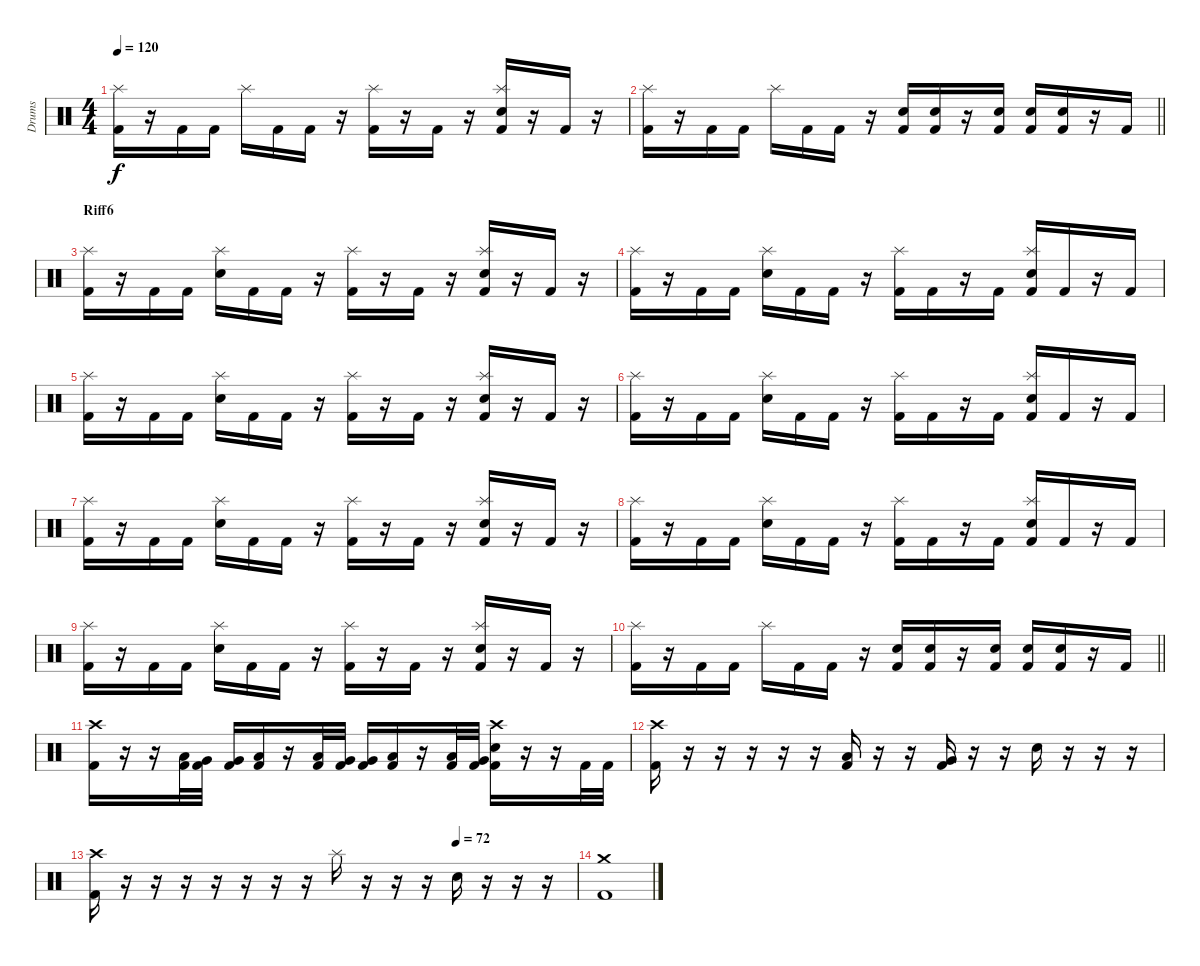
\track ("Drums" "Drums") {instrument percussion}
\staff {score}
\articulation defaults
\ts (4 4)
\tempo 120
\clef neutral
\ks c
("Kick (hit) 2" "Splash (hit)").16{dy f} r.16 "Kick (hit) 2".16 "Kick (hit) 2".16 "Splash (hit)".16 "Kick (hit) 2".16 "Kick (hit) 2".16 r.16 ("Kick (hit) 2" "Splash (hit)").16 r.16 "Kick (hit) 2".16 r.16 ("Kick (hit) 2" "Splash (hit)" "Snare (hit) 2").16 r.16 "Kick (hit) 2".16 r.16 |
\barLineRight lightlight
("Kick (hit) 2" "Splash (hit)").16 r.16 "Kick (hit) 2".16 "Kick (hit) 2".16 "Splash (hit)".16 "Kick (hit) 2".16 "Kick (hit) 2".16 r.16 ("Kick (hit) 2" "Snare (hit) 2").16 ("Kick (hit) 2" "Snare (hit) 2").16 r.16 ("Kick (hit) 2" "Snare (hit) 2").16 ("Kick (hit) 2" "Snare (hit) 2").16 ("Kick (hit) 2" "Snare (hit) 2").16 r.16 "Kick (hit) 2".16 |
\section ("" "Riff6")
("Kick (hit) 2" "Splash (hit)").16 r.16 "Kick (hit) 2".16 "Kick (hit) 2".16 ("Splash (hit)" "Snare (hit) 2").16 "Kick (hit) 2".16 "Kick (hit) 2".16 r.16 ("Kick (hit) 2" "Splash (hit)").16 r.16 "Kick (hit) 2".16 r.16 ("Kick (hit) 2" "Splash (hit)" "Snare (hit) 2").16 r.16 "Kick (hit) 2".16 r.16 |
("Kick (hit) 2" "Splash (hit)").16 r.16 "Kick (hit) 2".16 "Kick (hit) 2".16 ("Splash (hit)" "Snare (hit) 2").16 "Kick (hit) 2".16 "Kick (hit) 2".16 r.16 ("Kick (hit) 2" "Splash (hit)").16 "Kick (hit) 2".16 r.16 "Kick (hit) 2".16 ("Kick (hit) 2" "Splash (hit)" "Snare (hit) 2").16 "Kick (hit) 2".16 r.16 "Kick (hit) 2".16 |
("Kick (hit) 2" "Splash (hit)").16 r.16 "Kick (hit) 2".16 "Kick (hit) 2".16 ("Splash (hit)" "Snare (hit) 2").16 "Kick (hit) 2".16 "Kick (hit) 2".16 r.16 ("Kick (hit) 2" "Splash (hit)").16 r.16 "Kick (hit) 2".16 r.16 ("Kick (hit) 2" "Splash (hit)" "Snare (hit) 2").16 r.16 "Kick (hit) 2".16 r.16 |
("Kick (hit) 2" "Splash (hit)").16 r.16 "Kick (hit) 2".16 "Kick (hit) 2".16 ("Splash (hit)" "Snare (hit) 2").16 "Kick (hit) 2".16 "Kick (hit) 2".16 r.16 ("Kick (hit) 2" "Splash (hit)").16 "Kick (hit) 2".16 r.16 "Kick (hit) 2".16 ("Kick (hit) 2" "Splash (hit)" "Snare (hit) 2").16 "Kick (hit) 2".16 r.16 "Kick (hit) 2".16 |
("Kick (hit) 2" "Splash (hit)").16 r.16 "Kick (hit) 2".16 "Kick (hit) 2".16 ("Splash (hit)" "Snare (hit) 2").16 "Kick (hit) 2".16 "Kick (hit) 2".16 r.16 ("Kick (hit) 2" "Splash (hit)").16 r.16 "Kick (hit) 2".16 r.16 ("Kick (hit) 2" "Splash (hit)" "Snare (hit) 2").16 r.16 "Kick (hit) 2".16 r.16 |
("Kick (hit) 2" "Splash (hit)").16 r.16 "Kick (hit) 2".16 "Kick (hit) 2".16 ("Splash (hit)" "Snare (hit) 2").16 "Kick (hit) 2".16 "Kick (hit) 2".16 r.16 ("Kick (hit) 2" "Splash (hit)").16 "Kick (hit) 2".16 r.16 "Kick (hit) 2".16 ("Kick (hit) 2" "Splash (hit)" "Snare (hit) 2").16 "Kick (hit) 2".16 r.16 "Kick (hit) 2".16 |
("Kick (hit) 2" "Splash (hit)").16 r.16 "Kick (hit) 2".16 "Kick (hit) 2".16 ("Splash (hit)" "Snare (hit) 2").16 "Kick (hit) 2".16 "Kick (hit) 2".16 r.16 ("Kick (hit) 2" "Splash (hit)").16 r.16 "Kick (hit) 2".16 r.16 ("Kick (hit) 2" "Splash (hit)" "Snare (hit) 2").16 r.16 "Kick (hit) 2".16 r.16 |
\barLineRight lightlight
("Kick (hit) 2" "Splash (hit)").16 r.16 "Kick (hit) 2".16 "Kick (hit) 2".16 "Splash (hit)".16 "Kick (hit) 2".16 "Kick (hit) 2".16 r.16 ("Kick (hit) 2" "Snare (hit) 2").16 ("Kick (hit) 2" "Snare (hit) 2").16 r.16 ("Kick (hit) 2" "Snare (hit) 2").16 ("Kick (hit) 2" "Snare (hit) 2").16 ("Kick (hit) 2" "Snare (hit) 2").16 r.16 "Kick (hit) 2".16 |
("Kick (hit) 2" "Crash high (hit)").16 r.16 r.16 ("Kick (hit) 2" "Low Tom (hit)").32 ("Kick (hit) 2" "Very Low Tom (hit)").32 ("Kick (hit) 2" "Very Low Tom (hit)").16 ("Kick (hit) 2" "Low Floor Tom (hit)").16 r.16 ("Kick (hit) 2" "Low Tom (hit)").32 ("Kick (hit) 2" "Very Low Tom (hit)").32 ("Kick (hit) 2" "Very Low Tom (hit)").16 ("Kick (hit) 2" "Low Floor Tom (hit)").16 r.16 ("Kick (hit) 2" "Low Tom (hit)").32 ("Kick (hit) 2" "Very Low Tom (hit)").32 ("Kick (hit) 2" "Crash high (hit)" "Snare (hit) 2").16 r.16 r.16 "Kick (hit) 2".32 "Kick (hit) 2".32 |
("Kick (hit) 2" "Crash high (hit)").16 r.16 r.16 r.16 r.16 r.16 ("Kick (hit) 2" "Low Tom (hit)").16 r.16 r.16 ("Kick (hit) 2" "Very Low Tom (hit)").16 r.16 r.16 "Snare (hit) 2".16 r.16 r.16 r.16 |
\tempo (72 0.75)
("Kick (hit) 2" "Crash high (hit)").16 r.16 r.16 r.16 r.16 r.16 r.16 r.16 "Splash (hit)".16 r.16 r.16 r.16 "Snare (hit) 2".16 r.16 r.16 r.16 |
("Kick (hit) 2" "Crash medium (hit)").1
